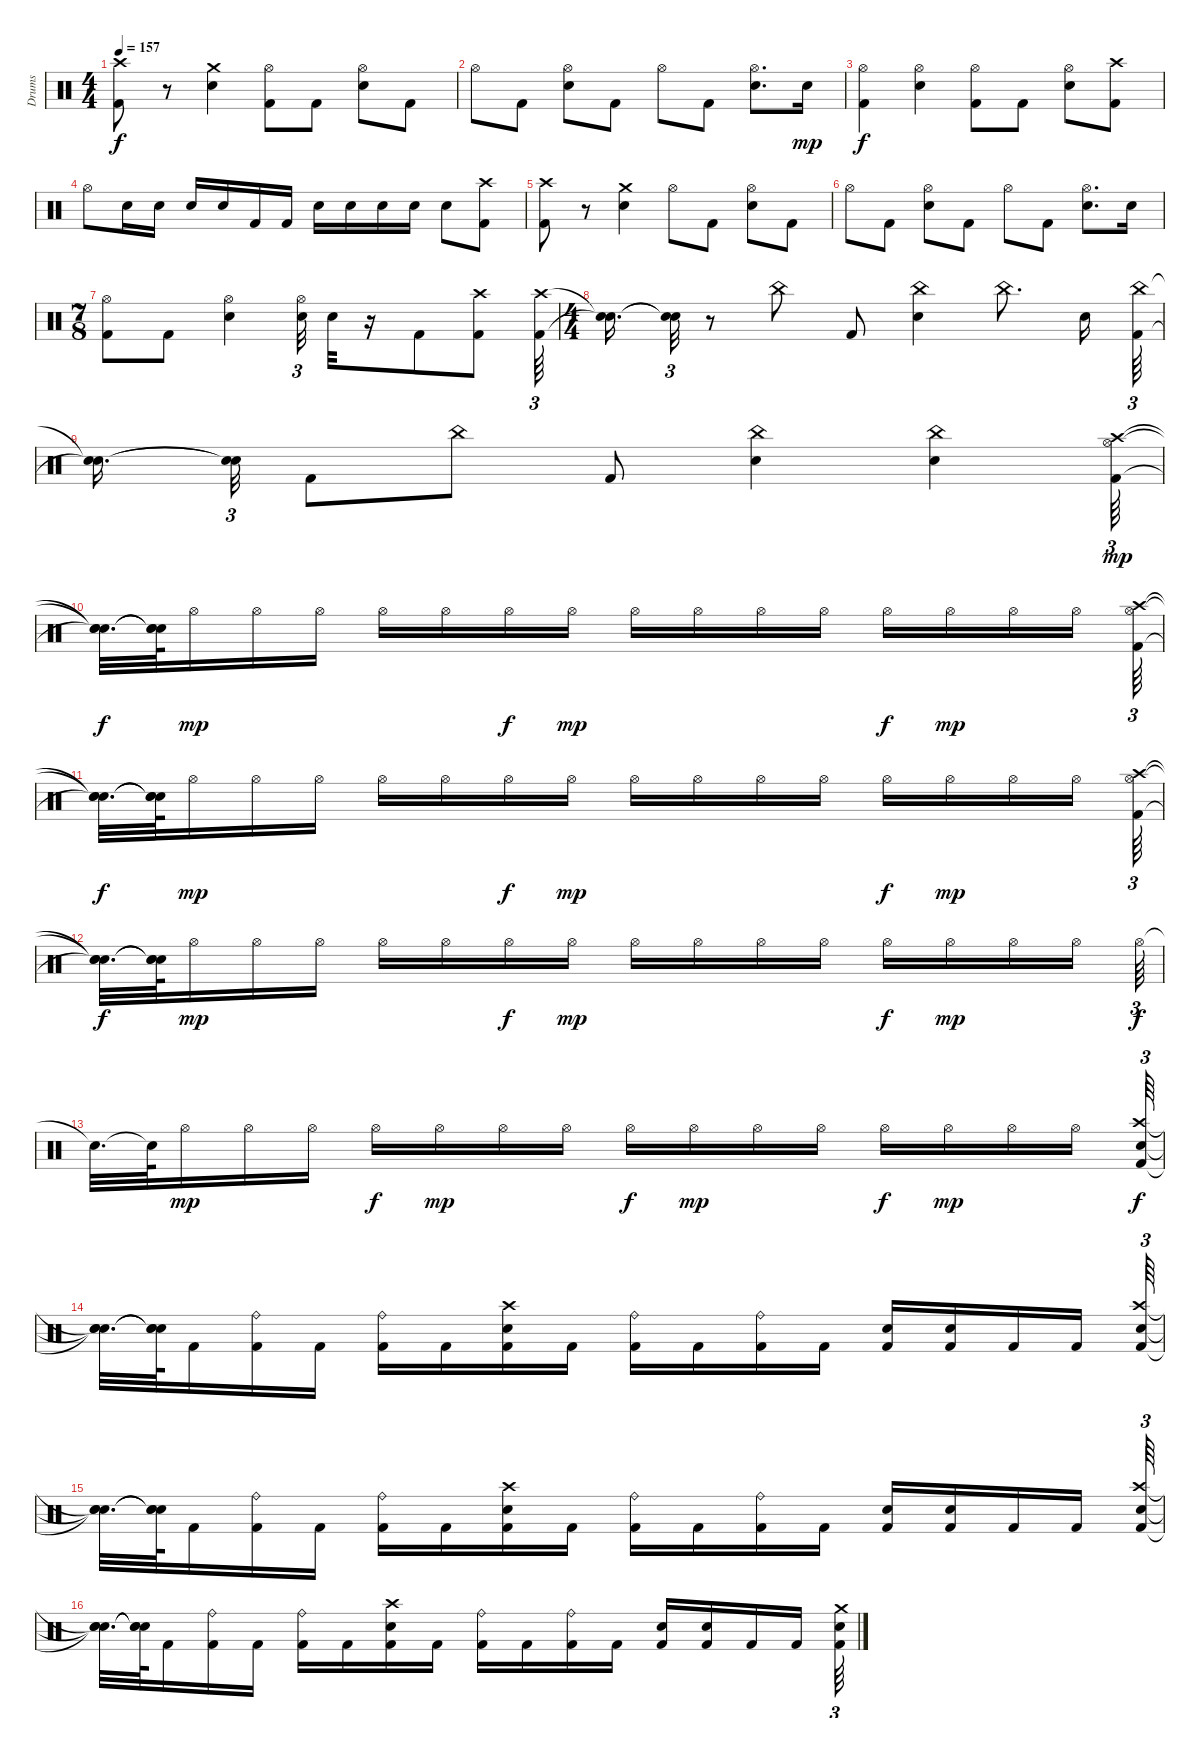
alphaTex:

\track ("Drums" "Drums") {instrument percussion}
\staff {score}
\articulation defaults
\ts (4 4)
\tempo 157
\clef neutral
\ks c
("Kick (hit) 2" "Crash high (hit)").8{dy f} r.8 ("Electric Snare (hit)" "Crash medium (hit)").4 ("Hi-Hat (open)" "Kick (hit) 2").8 "Kick (hit) 2".8 ("Electric Snare (hit)" "Hi-Hat (open)").8 "Kick (hit) 2".8 |
"Hi-Hat (open)".8 "Kick (hit) 2".8 ("Hi-Hat (open)" "Electric Snare (hit)").8 "Kick (hit) 2".8 "Hi-Hat (open)".8 "Kick (hit) 2".8 ("Hi-Hat (open)" "Electric Snare (hit)").8{d} "Electric Snare (hit)".16{dy mp} |
("Kick (hit) 2" "Hi-Hat (open)").4{dy f} ("Electric Snare (hit)" "Hi-Hat (open)").4 ("Kick (hit) 2" "Hi-Hat (open)").8 "Kick (hit) 2".8 ("Electric Snare (hit)" "Hi-Hat (open)").8 ("Crash high (hit)" "Kick (hit) 2").8 |
"Hi-Hat (open)".8 "Electric Snare (hit)".16 "Electric Snare (hit)".16 "Electric Snare (hit)".16 "Electric Snare (hit)".16 "Kick (hit) 2".16 "Kick (hit) 2".16 "Electric Snare (hit)".16 "Electric Snare (hit)".16 "Electric Snare (hit)".16 "Electric Snare (hit)".16 "Electric Snare (hit)".8 ("Kick (hit) 2" "Crash high (hit)").8 |
("Crash high (hit)" "Kick (hit) 2").8 r.8 ("Electric Snare (hit)" "Crash medium (hit)").4 "Hi-Hat (open)".8 "Kick (hit) 2".8 ("Electric Snare (hit)" "Hi-Hat (open)").8 "Kick (hit) 2".8 |
"Hi-Hat (open)".8 "Kick (hit) 2".8 ("Hi-Hat (open)" "Electric Snare (hit)").8 "Kick (hit) 2".8 "Hi-Hat (open)".8 "Kick (hit) 2".8 ("Hi-Hat (open)" "Electric Snare (hit)").8{d} "Electric Snare (hit)".16 |
\ts (7 8)
("Kick (hit) 2" "Hi-Hat (open)").8 "Kick (hit) 2".8 ("Electric Snare (hit)" "Hi-Hat (open)").4 ("Hi-Hat (open)" "Electric Snare (hit)").32{tu (3 2)} "Electric Snare (hit)".32 r.16 "Kick (hit) 2".8 ("Crash high (hit)" "Kick (hit) 2").8 ("Crash high (hit)" "Kick (hit) 2").64{tu (3 2)} |
\ts (4 4)
("Snare (hit)"{t} "Snare (hit)"{t}).16{d} ("Snare (hit)"{t} "Snare (hit)"{t}).32{tu (3 2)} r.8 "China (hit)".8 "Kick (hit) 2".8 ("China (hit)" "Electric Snare (hit)").4 "China (hit)".8{d} "Electric Snare (hit)".16 ("Kick (hit) 2" "China (hit)").64{tu (3 2)} |
("Snare (hit)"{t} "Snare (hit)"{t}).16{d} ("Snare (hit)"{t} "Snare (hit)"{t}).32{tu (3 2)} "Kick (hit) 2".8 "China (hit)".8 "Kick (hit) 2".8 ("China (hit)" "Electric Snare (hit)").4 ("China (hit)" "Electric Snare (hit)").4 ("Crash high (hit)" "Kick (hit) 2" "Hi-Hat (open)").64{tu (3 2) dy mp} |
("Snare (hit)"{t} "Snare (hit)"{t} "Snare (hit)"{t}).32{d dy f} ("Snare (hit)"{t} "Snare (hit)"{t} "Snare (hit)"{t}).64 "Hi-Hat (open)".16{dy mp} "Hi-Hat (open)".16 "Hi-Hat (open)".16 "Hi-Hat (open)".16 "Hi-Hat (open)".16 "Hi-Hat (open)".16{dy f} "Hi-Hat (open)".16{dy mp} "Hi-Hat (open)".16 "Hi-Hat (open)".16 "Hi-Hat (open)".16 "Hi-Hat (open)".16 "Hi-Hat (open)".16{dy f} "Hi-Hat (open)".16{dy mp} "Hi-Hat (open)".16 "Hi-Hat (open)".16 ("Crash high (hit)" "Kick (hit) 2" "Hi-Hat (open)").64{tu (3 2)} |
("Snare (hit)"{t} "Snare (hit)"{t} "Snare (hit)"{t}).32{d dy f} ("Snare (hit)"{t} "Snare (hit)"{t} "Snare (hit)"{t}).64 "Hi-Hat (open)".16{dy mp} "Hi-Hat (open)".16 "Hi-Hat (open)".16 "Hi-Hat (open)".16 "Hi-Hat (open)".16 "Hi-Hat (open)".16{dy f} "Hi-Hat (open)".16{dy mp} "Hi-Hat (open)".16 "Hi-Hat (open)".16 "Hi-Hat (open)".16 "Hi-Hat (open)".16 "Hi-Hat (open)".16{dy f} "Hi-Hat (open)".16{dy mp} "Hi-Hat (open)".16 "Hi-Hat (open)".16 ("Hi-Hat (open)" "Crash high (hit)" "Kick (hit) 2").64{tu (3 2)} |
("Snare (hit)"{t} "Snare (hit)"{t} "Snare (hit)"{t}).32{d dy f} ("Snare (hit)"{t} "Snare (hit)"{t} "Snare (hit)"{t}).64 "Hi-Hat (open)".16{dy mp} "Hi-Hat (open)".16 "Hi-Hat (open)".16 "Hi-Hat (open)".16 "Hi-Hat (open)".16 "Hi-Hat (open)".16{dy f} "Hi-Hat (open)".16{dy mp} "Hi-Hat (open)".16 "Hi-Hat (open)".16 "Hi-Hat (open)".16 "Hi-Hat (open)".16 "Hi-Hat (open)".16{dy f} "Hi-Hat (open)".16{dy mp} "Hi-Hat (open)".16 "Hi-Hat (open)".16 "Hi-Hat (open)".64{tu (3 2) dy f} |
"Snare (hit)"{t}.32{d} "Snare (hit)"{t}.64 "Hi-Hat (open)".16{dy mp} "Hi-Hat (open)".16 "Hi-Hat (open)".16 "Hi-Hat (open)".16{dy f} "Hi-Hat (open)".16{dy mp} "Hi-Hat (open)".16 "Hi-Hat (open)".16 "Hi-Hat (open)".16{dy f} "Hi-Hat (open)".16{dy mp} "Hi-Hat (open)".16 "Hi-Hat (open)".16 "Hi-Hat (open)".16{dy f} "Hi-Hat (open)".16{dy mp} "Hi-Hat (open)".16 "Hi-Hat (open)".16 ("Kick (hit) 2" "Electric Snare (hit)" "Crash high (hit)").64{tu (3 2) dy f} |
("Snare (hit)"{t} "Snare (hit)"{t} "Snare (hit)"{t}).32{d} ("Snare (hit)"{t} "Snare (hit)"{t} "Snare (hit)"{t}).64 "Kick (hit) 2".16 ("Kick (hit) 2" "Ride (bell)").16 "Kick (hit) 2".16 ("Kick (hit) 2" "Ride (bell)").16 "Kick (hit) 2".16 ("Kick (hit) 2" "Electric Snare (hit)" "Crash high (hit)").16 "Kick (hit) 2".16 ("Kick (hit) 2" "Ride (bell)").16 "Kick (hit) 2".16 ("Kick (hit) 2" "Ride (bell)").16 "Kick (hit) 2".16 ("Kick (hit) 2" "Electric Snare (hit)").16 ("Kick (hit) 2" "Electric Snare (hit)").16 "Kick (hit) 2".16 "Kick (hit) 2".16 ("Kick (hit) 2" "Electric Snare (hit)" "Crash high (hit)").64{tu (3 2)} |
("Snare (hit)"{t} "Snare (hit)"{t} "Snare (hit)"{t}).32{d} ("Snare (hit)"{t} "Snare (hit)"{t} "Snare (hit)"{t}).64 "Kick (hit) 2".16 ("Kick (hit) 2" "Ride (bell)").16 "Kick (hit) 2".16 ("Kick (hit) 2" "Ride (bell)").16 "Kick (hit) 2".16 ("Kick (hit) 2" "Electric Snare (hit)" "Crash high (hit)").16 "Kick (hit) 2".16 ("Kick (hit) 2" "Ride (bell)").16 "Kick (hit) 2".16 ("Kick (hit) 2" "Ride (bell)").16 "Kick (hit) 2".16 ("Kick (hit) 2" "Electric Snare (hit)").16 ("Kick (hit) 2" "Electric Snare (hit)").16 "Kick (hit) 2".16 "Kick (hit) 2".16 ("Kick (hit) 2" "Electric Snare (hit)" "Crash high (hit)").64{tu (3 2)} |
("Snare (hit)"{t} "Snare (hit)"{t} "Snare (hit)"{t}).32{d} ("Snare (hit)"{t} "Snare (hit)"{t} "Snare (hit)"{t}).64 "Kick (hit) 2".16 ("Kick (hit) 2" "Ride (bell)").16 "Kick (hit) 2".16 ("Kick (hit) 2" "Ride (bell)").16 "Kick (hit) 2".16 ("Kick (hit) 2" "Electric Snare (hit)" "Crash high (hit)").16 "Kick (hit) 2".16 ("Kick (hit) 2" "Ride (bell)").16 "Kick (hit) 2".16 ("Kick (hit) 2" "Ride (bell)").16 "Kick (hit) 2".16 ("Kick (hit) 2" "Electric Snare (hit)").16 ("Kick (hit) 2" "Electric Snare (hit)").16 "Kick (hit) 2".16 "Kick (hit) 2".16 ("Kick (hit) 2" "Electric Snare (hit)" "Crash medium (hit)").64{tu (3 2)}
